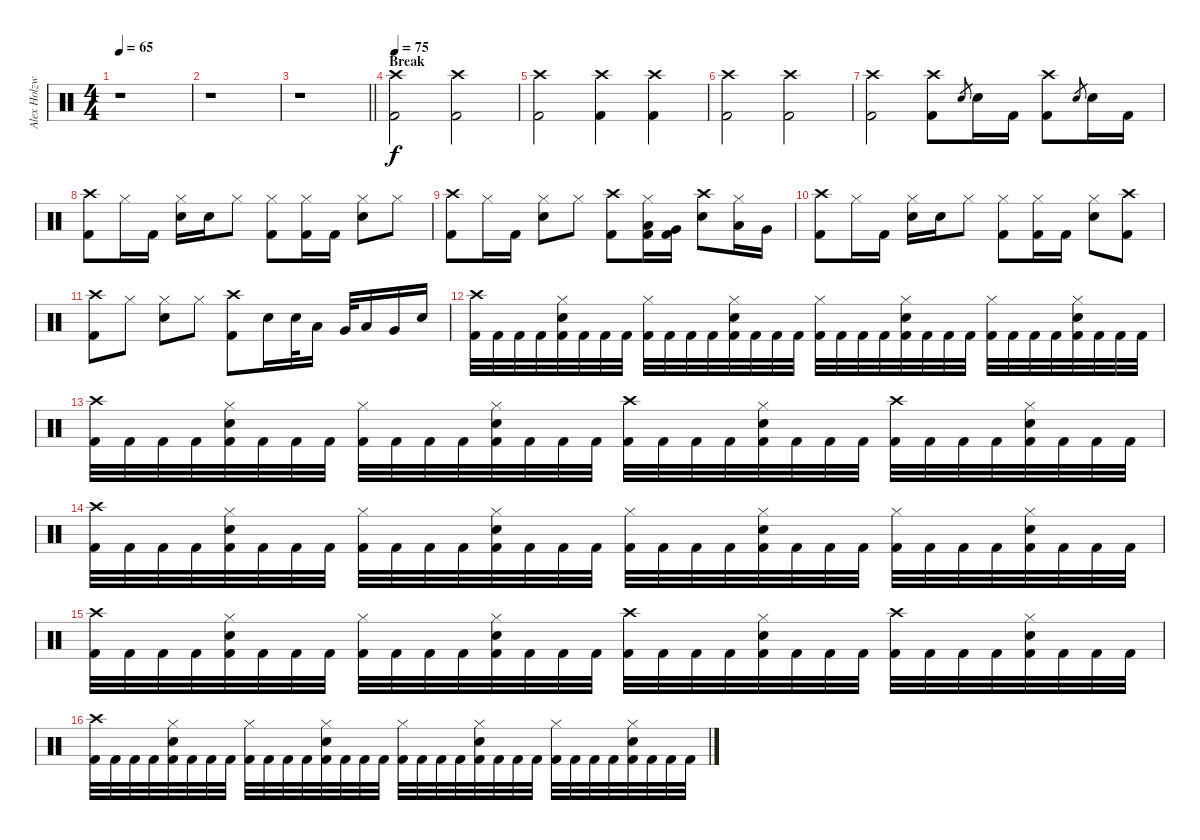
\track ("Alex Holzwarth (Drums)" "Alex Holzw") {instrument percussion}
\staff {score}
\articulation defaults
\ts (4 4)
\tempo 65
\clef neutral
\ks c
r.1{dy f} |
r.1 |
\barLineRight lightlight
r.1 |
\section ("" "Break")
\tempo 75
("Crash high (hit)" "Kick (hit) 2").2 ("Crash high (hit)" "Kick (hit) 2").2 |
("Crash high (hit)" "Kick (hit) 2").2 ("Crash high (hit)" "Kick (hit) 2").4 ("Crash high (hit)" "Kick (hit) 2").4 |
("Crash high (hit)" "Kick (hit) 2").2 ("Crash high (hit)" "Kick (hit) 2").2 |
("Crash high (hit)" "Kick (hit) 2").2 ("Crash high (hit)" "Kick (hit) 2").8 "Electric Snare (hit)".8{gr} "Electric Snare (hit)".16 "Kick (hit) 2".16 ("Crash high (hit)" "Kick (hit) 2").8 "Electric Snare (hit)".8{gr} "Electric Snare (hit)".16 "Kick (hit) 2".16 |
("Crash high (hit)" "Kick (hit) 2").8 "Hi-Hat (closed)".16 "Kick (hit) 2".16 ("Hi-Hat (closed)" "Electric Snare (hit)").16 "Electric Snare (hit)".16 "Hi-Hat (closed)".8 ("Hi-Hat (closed)" "Kick (hit) 2").8 ("Hi-Hat (closed)" "Kick (hit) 2").16 "Kick (hit) 2".16 ("Hi-Hat (closed)" "Electric Snare (hit)").8 "Hi-Hat (closed)".8 |
("Crash high (hit)" "Kick (hit) 2").8 "Hi-Hat (closed)".16 "Kick (hit) 2".16 ("Hi-Hat (closed)" "Electric Snare (hit)").8 "Hi-Hat (closed)".8 ("Crash high (hit)" "Kick (hit) 2").8 ("Hi-Hat (closed)" "Low Floor Tom (hit)" "Kick (hit) 2").16 ("Very Low Tom (hit)" "Kick (hit) 2").16 ("Crash high (hit)" "Electric Snare (hit)").8 ("Hi-Hat (closed)" "Low Tom (hit)").16 "Very Low Tom (hit)".16 |
("Crash high (hit)" "Kick (hit) 2").8 "Hi-Hat (closed)".16 "Kick (hit) 2".16 ("Hi-Hat (closed)" "Electric Snare (hit)").16 "Electric Snare (hit)".16 "Hi-Hat (closed)".8 ("Hi-Hat (closed)" "Kick (hit) 2").8 ("Hi-Hat (closed)" "Kick (hit) 2").16 "Kick (hit) 2".16 ("Hi-Hat (closed)" "Electric Snare (hit)").8 ("Crash high (hit)" "Kick (hit) 2").8 |
("Crash high (hit)" "Kick (hit) 2").8 "Hi-Hat (closed)".8 ("Hi-Hat (closed)" "Electric Snare (hit)").8 "Hi-Hat (closed)".8 ("Crash high (hit)" "Kick (hit) 2").8 "Electric Snare (hit)".16 "Electric Snare (hit)".32 "Low Tom (hit)".16 "Very Low Tom (hit)".32 "Low Floor Tom (hit)".16 "Very Low Tom (hit)".16 "Electric Snare (hit)".16 |
("Crash high (hit)" "Kick (hit) 2").32 "Kick (hit) 2".32 "Kick (hit) 2".32 "Kick (hit) 2".32 ("Hi-Hat (closed)" "Electric Snare (hit)" "Kick (hit) 2").32 "Kick (hit) 2".32 "Kick (hit) 2".32 "Kick (hit) 2".32 ("Hi-Hat (closed)" "Kick (hit) 2").32 "Kick (hit) 2".32 "Kick (hit) 2".32 "Kick (hit) 2".32 ("Hi-Hat (closed)" "Electric Snare (hit)" "Kick (hit) 2").32 "Kick (hit) 2".32 "Kick (hit) 2".32 "Kick (hit) 2".32 ("Hi-Hat (closed)" "Kick (hit) 2").32 "Kick (hit) 2".32 "Kick (hit) 2".32 "Kick (hit) 2".32 ("Hi-Hat (closed)" "Electric Snare (hit)" "Kick (hit) 2").32 "Kick (hit) 2".32 "Kick (hit) 2".32 "Kick (hit) 2".32 ("Hi-Hat (closed)" "Kick (hit) 2").32 "Kick (hit) 2".32 "Kick (hit) 2".32 "Kick (hit) 2".32 ("Hi-Hat (closed)" "Electric Snare (hit)" "Kick (hit) 2").32 "Kick (hit) 2".32 "Kick (hit) 2".32 "Kick (hit) 2".32 |
("Crash high (hit)" "Kick (hit) 2").32 "Kick (hit) 2".32 "Kick (hit) 2".32 "Kick (hit) 2".32 ("Hi-Hat (closed)" "Electric Snare (hit)" "Kick (hit) 2").32 "Kick (hit) 2".32 "Kick (hit) 2".32 "Kick (hit) 2".32 ("Hi-Hat (closed)" "Kick (hit) 2").32 "Kick (hit) 2".32 "Kick (hit) 2".32 "Kick (hit) 2".32 ("Hi-Hat (closed)" "Electric Snare (hit)" "Kick (hit) 2").32 "Kick (hit) 2".32 "Kick (hit) 2".32 "Kick (hit) 2".32 ("Crash high (hit)" "Kick (hit) 2").32 "Kick (hit) 2".32 "Kick (hit) 2".32 "Kick (hit) 2".32 ("Hi-Hat (closed)" "Electric Snare (hit)" "Kick (hit) 2").32 "Kick (hit) 2".32 "Kick (hit) 2".32 "Kick (hit) 2".32 ("Crash high (hit)" "Kick (hit) 2").32 "Kick (hit) 2".32 "Kick (hit) 2".32 "Kick (hit) 2".32 ("Hi-Hat (closed)" "Electric Snare (hit)" "Kick (hit) 2").32 "Kick (hit) 2".32 "Kick (hit) 2".32 "Kick (hit) 2".32 |
("Crash high (hit)" "Kick (hit) 2").32 "Kick (hit) 2".32 "Kick (hit) 2".32 "Kick (hit) 2".32 ("Hi-Hat (closed)" "Electric Snare (hit)" "Kick (hit) 2").32 "Kick (hit) 2".32 "Kick (hit) 2".32 "Kick (hit) 2".32 ("Hi-Hat (closed)" "Kick (hit) 2").32 "Kick (hit) 2".32 "Kick (hit) 2".32 "Kick (hit) 2".32 ("Hi-Hat (closed)" "Electric Snare (hit)" "Kick (hit) 2").32 "Kick (hit) 2".32 "Kick (hit) 2".32 "Kick (hit) 2".32 ("Hi-Hat (closed)" "Kick (hit) 2").32 "Kick (hit) 2".32 "Kick (hit) 2".32 "Kick (hit) 2".32 ("Hi-Hat (closed)" "Electric Snare (hit)" "Kick (hit) 2").32 "Kick (hit) 2".32 "Kick (hit) 2".32 "Kick (hit) 2".32 ("Hi-Hat (closed)" "Kick (hit) 2").32 "Kick (hit) 2".32 "Kick (hit) 2".32 "Kick (hit) 2".32 ("Hi-Hat (closed)" "Electric Snare (hit)" "Kick (hit) 2").32 "Kick (hit) 2".32 "Kick (hit) 2".32 "Kick (hit) 2".32 |
("Crash high (hit)" "Kick (hit) 2").32 "Kick (hit) 2".32 "Kick (hit) 2".32 "Kick (hit) 2".32 ("Hi-Hat (closed)" "Electric Snare (hit)" "Kick (hit) 2").32 "Kick (hit) 2".32 "Kick (hit) 2".32 "Kick (hit) 2".32 ("Hi-Hat (closed)" "Kick (hit) 2").32 "Kick (hit) 2".32 "Kick (hit) 2".32 "Kick (hit) 2".32 ("Hi-Hat (closed)" "Electric Snare (hit)" "Kick (hit) 2").32 "Kick (hit) 2".32 "Kick (hit) 2".32 "Kick (hit) 2".32 ("Crash high (hit)" "Kick (hit) 2").32 "Kick (hit) 2".32 "Kick (hit) 2".32 "Kick (hit) 2".32 ("Hi-Hat (closed)" "Electric Snare (hit)" "Kick (hit) 2").32 "Kick (hit) 2".32 "Kick (hit) 2".32 "Kick (hit) 2".32 ("Crash high (hit)" "Kick (hit) 2").32 "Kick (hit) 2".32 "Kick (hit) 2".32 "Kick (hit) 2".32 ("Hi-Hat (closed)" "Electric Snare (hit)" "Kick (hit) 2").32 "Kick (hit) 2".32 "Kick (hit) 2".32 "Kick (hit) 2".32 |
("Crash high (hit)" "Kick (hit) 2").32 "Kick (hit) 2".32 "Kick (hit) 2".32 "Kick (hit) 2".32 ("Hi-Hat (closed)" "Electric Snare (hit)" "Kick (hit) 2").32 "Kick (hit) 2".32 "Kick (hit) 2".32 "Kick (hit) 2".32 ("Hi-Hat (closed)" "Kick (hit) 2").32 "Kick (hit) 2".32 "Kick (hit) 2".32 "Kick (hit) 2".32 ("Hi-Hat (closed)" "Electric Snare (hit)" "Kick (hit) 2").32 "Kick (hit) 2".32 "Kick (hit) 2".32 "Kick (hit) 2".32 ("Hi-Hat (closed)" "Kick (hit) 2").32 "Kick (hit) 2".32 "Kick (hit) 2".32 "Kick (hit) 2".32 ("Hi-Hat (closed)" "Electric Snare (hit)" "Kick (hit) 2").32 "Kick (hit) 2".32 "Kick (hit) 2".32 "Kick (hit) 2".32 ("Hi-Hat (closed)" "Kick (hit) 2").32 "Kick (hit) 2".32 "Kick (hit) 2".32 "Kick (hit) 2".32 ("Hi-Hat (closed)" "Electric Snare (hit)" "Kick (hit) 2").32 "Kick (hit) 2".32 "Kick (hit) 2".32 "Kick (hit) 2".32
